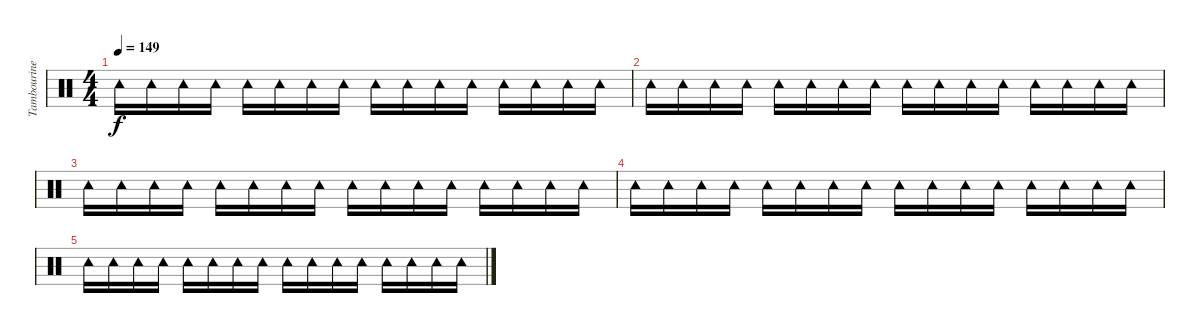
\track ("Tambourine" "Tambourine") {instrument percussion}
\staff {score}
\articulation defaults
\ts (4 4)
\tempo 149
\clef neutral
\ks c "Tambourine (hit)".16{dy f} "Tambourine (hit)".16 "Tambourine (hit)".16 "Tambourine (hit)".16 "Tambourine (hit)".16 "Tambourine (hit)".16 "Tambourine (hit)".16 "Tambourine (hit)".16 "Tambourine (hit)".16 "Tambourine (hit)".16 "Tambourine (hit)".16 "Tambourine (hit)".16 "Tambourine (hit)".16 "Tambourine (hit)".16 "Tambourine (hit)".16 "Tambourine (hit)".16
|
"Tambourine (hit)".16 "Tambourine (hit)".16 "Tambourine (hit)".16 "Tambourine (hit)".16 "Tambourine (hit)".16 "Tambourine (hit)".16 "Tambourine (hit)".16 "Tambourine (hit)".16 "Tambourine (hit)".16 "Tambourine (hit)".16 "Tambourine (hit)".16 "Tambourine (hit)".16 "Tambourine (hit)".16 "Tambourine (hit)".16 "Tambourine (hit)".16 "Tambourine (hit)".16 |
"Tambourine (hit)".16 "Tambourine (hit)".16 "Tambourine (hit)".16 "Tambourine (hit)".16 "Tambourine (hit)".16 "Tambourine (hit)".16 "Tambourine (hit)".16 "Tambourine (hit)".16 "Tambourine (hit)".16 "Tambourine (hit)".16 "Tambourine (hit)".16 "Tambourine (hit)".16 "Tambourine (hit)".16 "Tambourine (hit)".16 "Tambourine (hit)".16 "Tambourine (hit)".16 |
"Tambourine (hit)".16 "Tambourine (hit)".16 "Tambourine (hit)".16 "Tambourine (hit)".16 "Tambourine (hit)".16 "Tambourine (hit)".16 "Tambourine (hit)".16 "Tambourine (hit)".16 "Tambourine (hit)".16 "Tambourine (hit)".16 "Tambourine (hit)".16 "Tambourine (hit)".16 "Tambourine (hit)".16 "Tambourine (hit)".16 "Tambourine (hit)".16 "Tambourine (hit)".16 |
"Tambourine (hit)".16 "Tambourine (hit)".16 "Tambourine (hit)".16 "Tambourine (hit)".16 "Tambourine (hit)".16 "Tambourine (hit)".16 "Tambourine (hit)".16 "Tambourine (hit)".16 "Tambourine (hit)".16 "Tambourine (hit)".16 "Tambourine (hit)".16 "Tambourine (hit)".16 "Tambourine (hit)".16 "Tambourine (hit)".16 "Tambourine (hit)".16 "Tambourine (hit)".16
